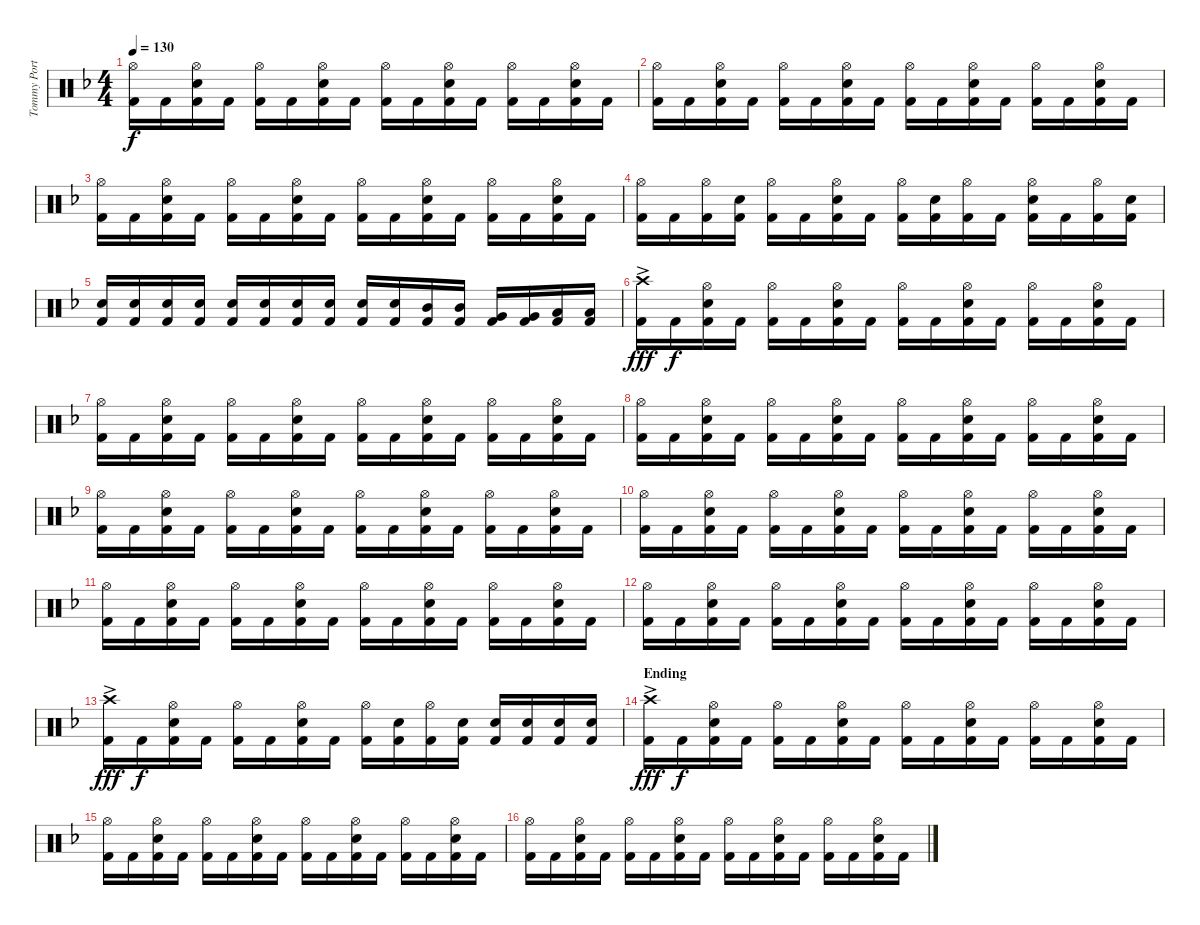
\track ("Tommy Portimo" "Tommy Port") {instrument percussion}
\staff {score}
\articulation defaults
\ts (4 4)
\tempo 130
\clef neutral
\ks dminor
("Hi-Hat (open)" "Kick (hit) 2").16{dy f} "Kick (hit) 2".16 ("Hi-Hat (open)" "Electric Snare (hit)" "Kick (hit) 2").16 "Kick (hit) 2".16 ("Hi-Hat (open)" "Kick (hit) 2").16 "Kick (hit) 2".16 ("Hi-Hat (open)" "Electric Snare (hit)" "Kick (hit) 2").16 "Kick (hit) 2".16 ("Hi-Hat (open)" "Kick (hit) 2").16 "Kick (hit) 2".16 ("Hi-Hat (open)" "Electric Snare (hit)" "Kick (hit) 2").16 "Kick (hit) 2".16 ("Hi-Hat (open)" "Kick (hit) 2").16 "Kick (hit) 2".16 ("Hi-Hat (open)" "Electric Snare (hit)" "Kick (hit) 2").16 "Kick (hit) 2".16 |
("Hi-Hat (open)" "Kick (hit) 2").16 "Kick (hit) 2".16 ("Hi-Hat (open)" "Electric Snare (hit)" "Kick (hit) 2").16 "Kick (hit) 2".16 ("Hi-Hat (open)" "Kick (hit) 2").16 "Kick (hit) 2".16 ("Hi-Hat (open)" "Electric Snare (hit)" "Kick (hit) 2").16 "Kick (hit) 2".16 ("Hi-Hat (open)" "Kick (hit) 2").16 "Kick (hit) 2".16 ("Hi-Hat (open)" "Electric Snare (hit)" "Kick (hit) 2").16 "Kick (hit) 2".16 ("Hi-Hat (open)" "Kick (hit) 2").16 "Kick (hit) 2".16 ("Hi-Hat (open)" "Electric Snare (hit)" "Kick (hit) 2").16 "Kick (hit) 2".16 |
("Hi-Hat (open)" "Kick (hit) 2").16 "Kick (hit) 2".16 ("Hi-Hat (open)" "Electric Snare (hit)" "Kick (hit) 2").16 "Kick (hit) 2".16 ("Hi-Hat (open)" "Kick (hit) 2").16 "Kick (hit) 2".16 ("Hi-Hat (open)" "Electric Snare (hit)" "Kick (hit) 2").16 "Kick (hit) 2".16 ("Hi-Hat (open)" "Kick (hit) 2").16 "Kick (hit) 2".16 ("Hi-Hat (open)" "Electric Snare (hit)" "Kick (hit) 2").16 "Kick (hit) 2".16 ("Hi-Hat (open)" "Kick (hit) 2").16 "Kick (hit) 2".16 ("Hi-Hat (open)" "Electric Snare (hit)" "Kick (hit) 2").16 "Kick (hit) 2".16 |
("Hi-Hat (open)" "Kick (hit) 2").16 "Kick (hit) 2".16 ("Hi-Hat (open)" "Kick (hit) 2").16 ("Electric Snare (hit)" "Kick (hit) 2").16 ("Hi-Hat (open)" "Kick (hit) 2").16 "Kick (hit) 2".16 ("Hi-Hat (open)" "Electric Snare (hit)" "Kick (hit) 2").16 "Kick (hit) 2".16 ("Hi-Hat (open)" "Kick (hit) 2").16 ("Electric Snare (hit)" "Kick (hit) 2").16 ("Hi-Hat (open)" "Kick (hit) 2").16 "Kick (hit) 2".16 ("Hi-Hat (open)" "Electric Snare (hit)" "Kick (hit) 2").16 "Kick (hit) 2".16 ("Hi-Hat (open)" "Kick (hit) 2").16 ("Electric Snare (hit)" "Kick (hit) 2").16 |
("Electric Snare (hit)" "Kick (hit) 2").16 ("Electric Snare (hit)" "Kick (hit) 2").16 ("Electric Snare (hit)" "Kick (hit) 2").16 ("Electric Snare (hit)" "Kick (hit) 2").16 ("Electric Snare (hit)" "Kick (hit) 2").16 ("Electric Snare (hit)" "Kick (hit) 2").16 ("Electric Snare (hit)" "Kick (hit) 2").16 ("Electric Snare (hit)" "Kick (hit) 2").16 ("Electric Snare (hit)" "Kick (hit) 2").16 ("Electric Snare (hit)" "Kick (hit) 2").16 ("Mid Tom (hit)" "Kick (hit) 2").16 ("Mid Tom (hit)" "Kick (hit) 2").16 ("Very Low Tom (hit)" "Kick (hit) 2").16 ("Very Low Tom (hit)" "Kick (hit) 2").16 ("Low Floor Tom (hit)" "Kick (hit) 2").16 ("Low Floor Tom (hit)" "Kick (hit) 2").16 |
("Crash high (hit)"{ac} "Kick (hit) 2").16{dy fff} "Kick (hit) 2".16{dy f} ("Hi-Hat (open)" "Electric Snare (hit)" "Kick (hit) 2").16 "Kick (hit) 2".16 ("Hi-Hat (open)" "Kick (hit) 2").16 "Kick (hit) 2".16 ("Hi-Hat (open)" "Electric Snare (hit)" "Kick (hit) 2").16 "Kick (hit) 2".16 ("Hi-Hat (open)" "Kick (hit) 2").16 "Kick (hit) 2".16 ("Hi-Hat (open)" "Electric Snare (hit)" "Kick (hit) 2").16 "Kick (hit) 2".16 ("Hi-Hat (open)" "Kick (hit) 2").16 "Kick (hit) 2".16 ("Hi-Hat (open)" "Electric Snare (hit)" "Kick (hit) 2").16 "Kick (hit) 2".16 |
("Hi-Hat (open)" "Kick (hit) 2").16 "Kick (hit) 2".16 ("Hi-Hat (open)" "Electric Snare (hit)" "Kick (hit) 2").16 "Kick (hit) 2".16 ("Hi-Hat (open)" "Kick (hit) 2").16 "Kick (hit) 2".16 ("Hi-Hat (open)" "Electric Snare (hit)" "Kick (hit) 2").16 "Kick (hit) 2".16 ("Hi-Hat (open)" "Kick (hit) 2").16 "Kick (hit) 2".16 ("Hi-Hat (open)" "Electric Snare (hit)" "Kick (hit) 2").16 "Kick (hit) 2".16 ("Hi-Hat (open)" "Kick (hit) 2").16 "Kick (hit) 2".16 ("Hi-Hat (open)" "Electric Snare (hit)" "Kick (hit) 2").16 "Kick (hit) 2".16 |
("Hi-Hat (open)" "Kick (hit) 2").16 "Kick (hit) 2".16 ("Hi-Hat (open)" "Electric Snare (hit)" "Kick (hit) 2").16 "Kick (hit) 2".16 ("Hi-Hat (open)" "Kick (hit) 2").16 "Kick (hit) 2".16 ("Hi-Hat (open)" "Electric Snare (hit)" "Kick (hit) 2").16 "Kick (hit) 2".16 ("Hi-Hat (open)" "Kick (hit) 2").16 "Kick (hit) 2".16 ("Hi-Hat (open)" "Electric Snare (hit)" "Kick (hit) 2").16 "Kick (hit) 2".16 ("Hi-Hat (open)" "Kick (hit) 2").16 "Kick (hit) 2".16 ("Hi-Hat (open)" "Electric Snare (hit)" "Kick (hit) 2").16 "Kick (hit) 2".16 |
("Hi-Hat (open)" "Kick (hit) 2").16 "Kick (hit) 2".16 ("Hi-Hat (open)" "Electric Snare (hit)" "Kick (hit) 2").16 "Kick (hit) 2".16 ("Hi-Hat (open)" "Kick (hit) 2").16 "Kick (hit) 2".16 ("Hi-Hat (open)" "Electric Snare (hit)" "Kick (hit) 2").16 "Kick (hit) 2".16 ("Hi-Hat (open)" "Kick (hit) 2").16 "Kick (hit) 2".16 ("Hi-Hat (open)" "Electric Snare (hit)" "Kick (hit) 2").16 "Kick (hit) 2".16 ("Hi-Hat (open)" "Kick (hit) 2").16 "Kick (hit) 2".16 ("Hi-Hat (open)" "Electric Snare (hit)" "Kick (hit) 2").16 "Kick (hit) 2".16 |
("Hi-Hat (open)" "Kick (hit) 2").16 "Kick (hit) 2".16 ("Hi-Hat (open)" "Electric Snare (hit)" "Kick (hit) 2").16 "Kick (hit) 2".16 ("Hi-Hat (open)" "Kick (hit) 2").16 "Kick (hit) 2".16 ("Hi-Hat (open)" "Electric Snare (hit)" "Kick (hit) 2").16 "Kick (hit) 2".16 ("Hi-Hat (open)" "Kick (hit) 2").16 "Kick (hit) 2".16 ("Hi-Hat (open)" "Electric Snare (hit)" "Kick (hit) 2").16 "Kick (hit) 2".16 ("Hi-Hat (open)" "Kick (hit) 2").16 "Kick (hit) 2".16 ("Hi-Hat (open)" "Electric Snare (hit)" "Kick (hit) 2").16 "Kick (hit) 2".16 |
("Hi-Hat (open)" "Kick (hit) 2").16 "Kick (hit) 2".16 ("Hi-Hat (open)" "Electric Snare (hit)" "Kick (hit) 2").16 "Kick (hit) 2".16 ("Hi-Hat (open)" "Kick (hit) 2").16 "Kick (hit) 2".16 ("Hi-Hat (open)" "Electric Snare (hit)" "Kick (hit) 2").16 "Kick (hit) 2".16 ("Hi-Hat (open)" "Kick (hit) 2").16 "Kick (hit) 2".16 ("Hi-Hat (open)" "Electric Snare (hit)" "Kick (hit) 2").16 "Kick (hit) 2".16 ("Hi-Hat (open)" "Kick (hit) 2").16 "Kick (hit) 2".16 ("Hi-Hat (open)" "Electric Snare (hit)" "Kick (hit) 2").16 "Kick (hit) 2".16 |
("Hi-Hat (open)" "Kick (hit) 2").16 "Kick (hit) 2".16 ("Hi-Hat (open)" "Electric Snare (hit)" "Kick (hit) 2").16 "Kick (hit) 2".16 ("Hi-Hat (open)" "Kick (hit) 2").16 "Kick (hit) 2".16 ("Hi-Hat (open)" "Electric Snare (hit)" "Kick (hit) 2").16 "Kick (hit) 2".16 ("Hi-Hat (open)" "Kick (hit) 2").16 "Kick (hit) 2".16 ("Hi-Hat (open)" "Electric Snare (hit)" "Kick (hit) 2").16 "Kick (hit) 2".16 ("Hi-Hat (open)" "Kick (hit) 2").16 "Kick (hit) 2".16 ("Hi-Hat (open)" "Electric Snare (hit)" "Kick (hit) 2").16 "Kick (hit) 2".16 |
("Crash high (hit)"{ac} "Kick (hit) 2").16{dy fff} "Kick (hit) 2".16{dy f} ("Hi-Hat (open)" "Electric Snare (hit)" "Kick (hit) 2").16 "Kick (hit) 2".16 ("Hi-Hat (open)" "Kick (hit) 2").16 "Kick (hit) 2".16 ("Hi-Hat (open)" "Electric Snare (hit)" "Kick (hit) 2").16 "Kick (hit) 2".16 ("Hi-Hat (open)" "Kick (hit) 2").16 ("Electric Snare (hit)" "Kick (hit) 2").16 ("Hi-Hat (open)" "Kick (hit) 2").16 ("Electric Snare (hit)" "Kick (hit) 2").16 ("Electric Snare (hit)" "Kick (hit) 2").16 ("Electric Snare (hit)" "Kick (hit) 2").16 ("Electric Snare (hit)" "Kick (hit) 2").16 ("Electric Snare (hit)" "Kick (hit) 2").16 |
\section ("" "Ending")
("Crash high (hit)"{ac} "Kick (hit) 2").16{dy fff} "Kick (hit) 2".16{dy f} ("Hi-Hat (open)" "Electric Snare (hit)" "Kick (hit) 2").16 "Kick (hit) 2".16 ("Hi-Hat (open)" "Kick (hit) 2").16 "Kick (hit) 2".16 ("Hi-Hat (open)" "Electric Snare (hit)" "Kick (hit) 2").16 "Kick (hit) 2".16 ("Hi-Hat (open)" "Kick (hit) 2").16 "Kick (hit) 2".16 ("Hi-Hat (open)" "Electric Snare (hit)" "Kick (hit) 2").16 "Kick (hit) 2".16 ("Hi-Hat (open)" "Kick (hit) 2").16 "Kick (hit) 2".16 ("Hi-Hat (open)" "Electric Snare (hit)" "Kick (hit) 2").16 "Kick (hit) 2".16 |
("Hi-Hat (open)" "Kick (hit) 2").16 "Kick (hit) 2".16 ("Hi-Hat (open)" "Electric Snare (hit)" "Kick (hit) 2").16 "Kick (hit) 2".16 ("Hi-Hat (open)" "Kick (hit) 2").16 "Kick (hit) 2".16 ("Hi-Hat (open)" "Electric Snare (hit)" "Kick (hit) 2").16 "Kick (hit) 2".16 ("Hi-Hat (open)" "Kick (hit) 2").16 "Kick (hit) 2".16 ("Hi-Hat (open)" "Electric Snare (hit)" "Kick (hit) 2").16 "Kick (hit) 2".16 ("Hi-Hat (open)" "Kick (hit) 2").16 "Kick (hit) 2".16 ("Hi-Hat (open)" "Electric Snare (hit)" "Kick (hit) 2").16 "Kick (hit) 2".16 |
("Hi-Hat (open)" "Kick (hit) 2").16 "Kick (hit) 2".16 ("Hi-Hat (open)" "Electric Snare (hit)" "Kick (hit) 2").16 "Kick (hit) 2".16 ("Hi-Hat (open)" "Kick (hit) 2").16 "Kick (hit) 2".16 ("Hi-Hat (open)" "Electric Snare (hit)" "Kick (hit) 2").16 "Kick (hit) 2".16 ("Hi-Hat (open)" "Kick (hit) 2").16 "Kick (hit) 2".16 ("Hi-Hat (open)" "Electric Snare (hit)" "Kick (hit) 2").16 "Kick (hit) 2".16 ("Hi-Hat (open)" "Kick (hit) 2").16 "Kick (hit) 2".16 ("Hi-Hat (open)" "Electric Snare (hit)" "Kick (hit) 2").16 "Kick (hit) 2".16
